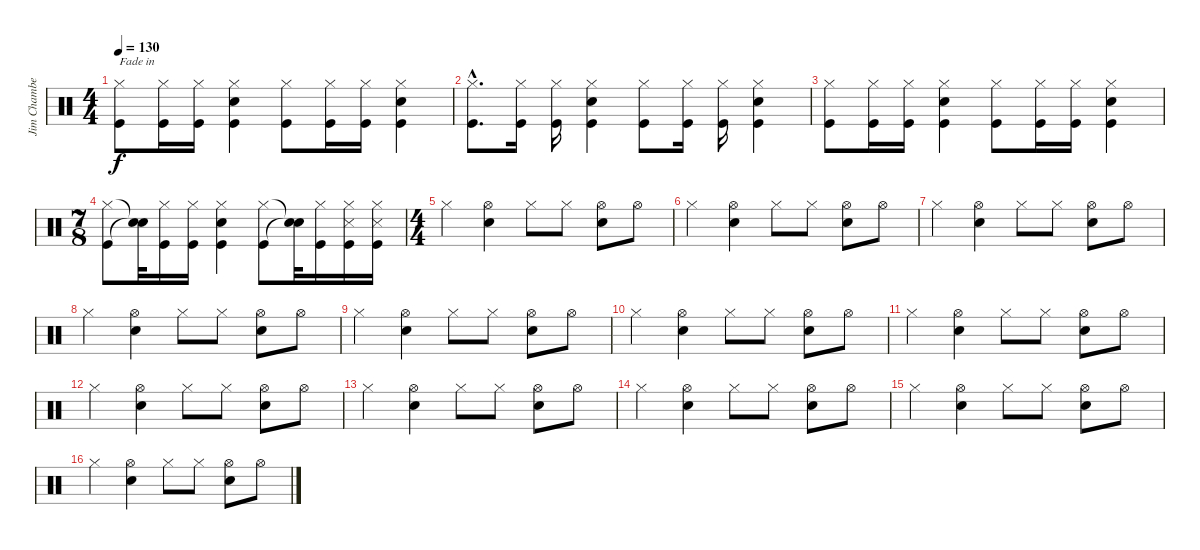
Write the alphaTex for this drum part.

\track ("Jim Chamberlin (Drums)" "Jim Chambe") {instrument percussion}
\staff {score}
\articulation defaults
\ts (4 4)
\tempo 130
\clef neutral
\ks c
("Hi-Hat (closed)" "Kick (hit)").8{txt "Fade in" dy f} ("Hi-Hat (closed)" "Kick (hit)").16 ("Hi-Hat (closed)" "Kick (hit)").16 ("Hi-Hat (closed)" "Kick (hit)" "Snare (hit) 2").4 ("Hi-Hat (closed)" "Kick (hit)").8 ("Hi-Hat (closed)" "Kick (hit)").16 ("Hi-Hat (closed)" "Kick (hit)").16 ("Hi-Hat (closed)" "Kick (hit)" "Snare (hit) 2").4 |
("Hi-Hat (closed)"{hac} "Kick (hit)"{hac}).8{d} ("Hi-Hat (closed)" "Kick (hit)").16 ("Hi-Hat (closed)" "Kick (hit)").16 ("Hi-Hat (closed)" "Kick (hit)" "Snare (hit) 2").4 ("Hi-Hat (closed)" "Kick (hit)").8 ("Hi-Hat (closed)" "Kick (hit)").16 ("Hi-Hat (closed)" "Kick (hit)").16 ("Hi-Hat (closed)" "Kick (hit)" "Snare (hit) 2").4 |
("Hi-Hat (closed)" "Kick (hit)").8 ("Hi-Hat (closed)" "Kick (hit)").16 ("Hi-Hat (closed)" "Kick (hit)").16 ("Hi-Hat (closed)" "Kick (hit)" "Snare (hit) 2").4 ("Hi-Hat (closed)" "Kick (hit)").8 ("Hi-Hat (closed)" "Kick (hit)").16 ("Hi-Hat (closed)" "Kick (hit)").16 ("Hi-Hat (closed)" "Kick (hit)" "Snare (hit) 2").4 |
\ts (7 8)
("Hi-Hat (closed)" "Kick (hit)").8 ("Snare (hit)"{t} "Snare (hit)"{t}).32 ("Hi-Hat (closed)" "Kick (hit)").16 ("Hi-Hat (closed)" "Kick (hit)").16 ("Hi-Hat (closed)" "Kick (hit)" "Snare (hit) 2").4 ("Hi-Hat (closed)" "Kick (hit)").8 ("Snare (hit)"{t} "Snare (hit)"{t}).32 ("Hi-Hat (closed)" "Kick (hit)").16 ("Hi-Hat (closed)" "Kick (hit)" "Snare (side stick) 3").16 ("Hi-Hat (closed)" "Kick (hit)" "Snare (side stick) 3").16 |
\ts (4 4)
"Hi-Hat (closed)".4 ("Snare (hit) 2" "Hi-Hat (open)").4 "Hi-Hat (closed)".8 "Hi-Hat (closed)".8 ("Snare (hit) 2" "Hi-Hat (open)").8 "Hi-Hat (open)".8 |
"Hi-Hat (closed)".4 ("Snare (hit) 2" "Hi-Hat (open)").4 "Hi-Hat (closed)".8 "Hi-Hat (closed)".8 ("Snare (hit) 2" "Hi-Hat (open)").8 "Hi-Hat (open)".8 |
"Hi-Hat (closed)".4 ("Snare (hit) 2" "Hi-Hat (open)").4 "Hi-Hat (closed)".8 "Hi-Hat (closed)".8 ("Snare (hit) 2" "Hi-Hat (open)").8 "Hi-Hat (open)".8 |
"Hi-Hat (closed)".4 ("Snare (hit) 2" "Hi-Hat (open)").4 "Hi-Hat (closed)".8 "Hi-Hat (closed)".8 ("Snare (hit) 2" "Hi-Hat (open)").8 "Hi-Hat (open)".8 |
"Hi-Hat (closed)".4 ("Snare (hit) 2" "Hi-Hat (open)").4 "Hi-Hat (closed)".8 "Hi-Hat (closed)".8 ("Snare (hit) 2" "Hi-Hat (open)").8 "Hi-Hat (open)".8 |
"Hi-Hat (closed)".4 ("Snare (hit) 2" "Hi-Hat (open)").4 "Hi-Hat (closed)".8 "Hi-Hat (closed)".8 ("Snare (hit) 2" "Hi-Hat (open)").8 "Hi-Hat (open)".8 |
"Hi-Hat (closed)".4 ("Snare (hit) 2" "Hi-Hat (open)").4 "Hi-Hat (closed)".8 "Hi-Hat (closed)".8 ("Snare (hit) 2" "Hi-Hat (open)").8 "Hi-Hat (open)".8 |
"Hi-Hat (closed)".4 ("Snare (hit) 2" "Hi-Hat (open)").4 "Hi-Hat (closed)".8 "Hi-Hat (closed)".8 ("Snare (hit) 2" "Hi-Hat (open)").8 "Hi-Hat (open)".8 |
"Hi-Hat (closed)".4 ("Snare (hit) 2" "Hi-Hat (open)").4 "Hi-Hat (closed)".8 "Hi-Hat (closed)".8 ("Snare (hit) 2" "Hi-Hat (open)").8 "Hi-Hat (open)".8 |
"Hi-Hat (closed)".4 ("Snare (hit) 2" "Hi-Hat (open)").4 "Hi-Hat (closed)".8 "Hi-Hat (closed)".8 ("Snare (hit) 2" "Hi-Hat (open)").8 "Hi-Hat (open)".8 |
"Hi-Hat (closed)".4 ("Snare (hit) 2" "Hi-Hat (open)").4 "Hi-Hat (closed)".8 "Hi-Hat (closed)".8 ("Snare (hit) 2" "Hi-Hat (open)").8 "Hi-Hat (open)".8 |
"Hi-Hat (closed)".4 ("Snare (hit) 2" "Hi-Hat (open)").4 "Hi-Hat (closed)".8 "Hi-Hat (closed)".8 ("Snare (hit) 2" "Hi-Hat (open)").8 "Hi-Hat (open)".8
